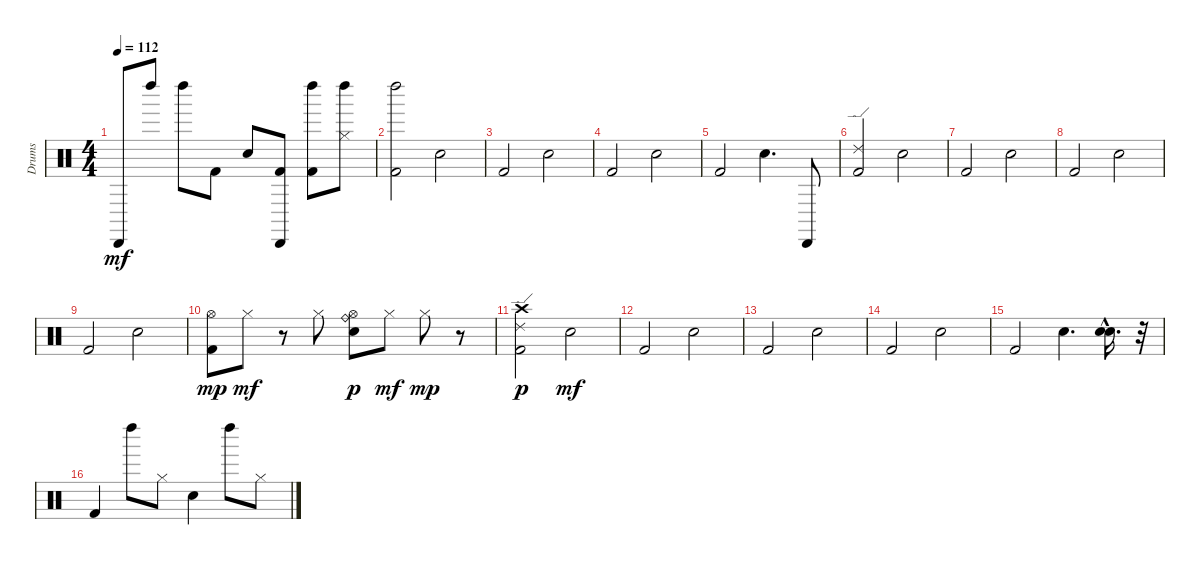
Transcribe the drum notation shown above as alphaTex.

\track ("Drums" "Drums") {instrument percussion}
\staff {score}
\articulation defaults
\ts (4 4)
\tempo 112
\clef neutral
\ks c "Cabasa (hit)".8{dy mf} "Left Maraca (hit)".8 "Left Maraca (hit)".8 "Kick (hit) 2".8 "Snare (hit) 2".8
("Kick (hit) 2" "Cabasa (hit)").8 ("Kick (hit) 2" "Left Maraca (hit)").8 ("Hi-Hat (closed)" "Left Maraca (hit)").8 |
("Kick (hit) 2" "Left Maraca (hit)").2 "Snare (hit) 2".2 |
"Kick (hit) 2".2 "Snare (hit) 2".2 |
"Kick (hit) 2".2 "Snare (hit) 2".2 |
"Kick (hit) 2".2 "Snare (hit) 2".4{d} "Cabasa (hit)".8 |
("Kick (hit) 2" "Ride (edge) 2").2 "Snare (hit) 2".2 |
"Kick (hit) 2".2 "Snare (hit) 2".2 |
"Kick (hit) 2".2 "Snare (hit) 2".2 |
"Kick (hit) 2".2 "Snare (hit) 2".2 |
("Kick (hit) 2" "Hi-Hat (open)").8{dy mp} "Hi-Hat (closed)".8{dy mf} r.8 "Hi-Hat (closed)".8 ("Snare (hit) 2" "Hi-Hat (open)" "Ride (bell)").8{dy p} "Hi-Hat (closed)".8{dy mf} "Hi-Hat (closed)".8{dy mp} r.8 |
("Kick (hit) 2" "Ride (edge) 2" "Crash high (hit)").2{dy p} "Snare (hit) 2".2{dy mf} |
"Kick (hit) 2".2 "Snare (hit) 2".2 |
"Kick (hit) 2".2 "Snare (hit) 2".2 |
"Kick (hit) 2".2 "Snare (hit) 2".2 |
"Kick (hit) 2".2 "Snare (hit) 2".4{d} ("Electric Snare (hit)" "Electric Snare (hit)"{hac}).16{d} r.32 |
"Kick (hit) 2".4 "Left Maraca (hit)".8 "Hi-Hat (closed)".8 "Snare (hit) 2".4 "Left Maraca (hit)".8 "Hi-Hat (closed)".8
